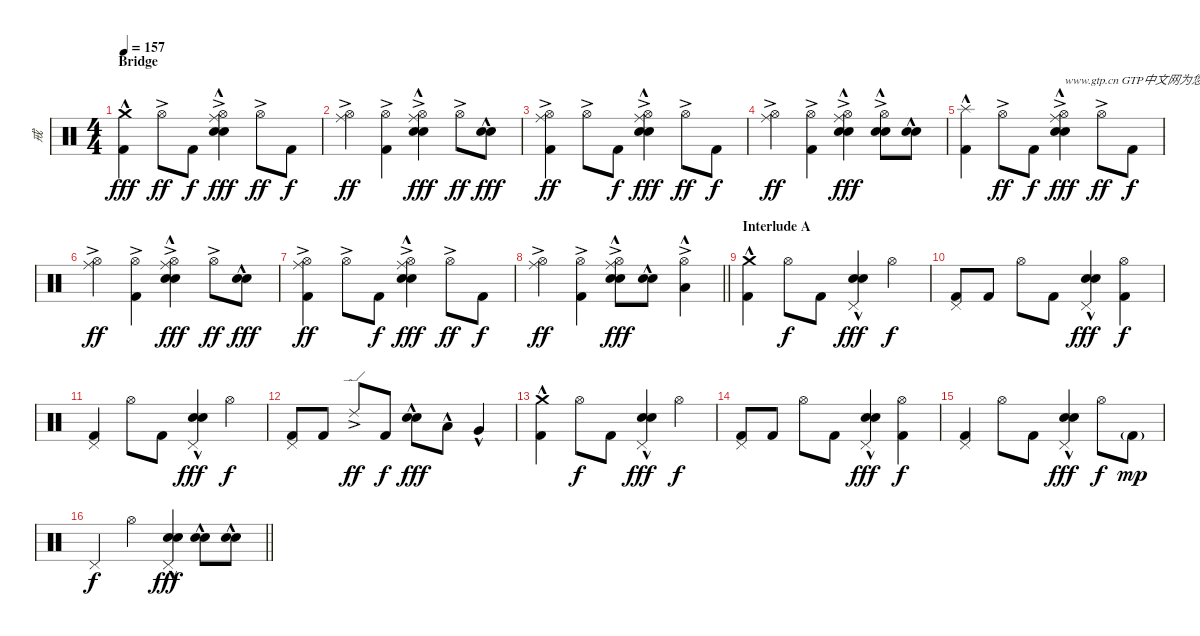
\track ("戒" "戒") {instrument percussion}
\staff {score}
\articulation defaults
\ts (4 4)
\section ("" "Bridge")
\tempo 157
\clef neutral
\ks c
("Crash medium (hit)"{hac} "Kick (hit) 2").4{dy fff} "Hi-Hat (open)"{ac}.8{dy ff} "Kick (hit) 2".8{dy f} ("Hi-Hat (open)"{ac} "Ride (middle)" "Electric Snare (hit)"{hac} "Snare (hit) 2"{hac}).4{dy fff} "Hi-Hat (open)"{ac}.8{dy ff} "Kick (hit) 2".8{dy f} |
("Hi-Hat (open)"{ac} "Ride (middle)").4{dy ff} ("Hi-Hat (open)"{ac} "Kick (hit) 2").4 ("Hi-Hat (open)"{ac} "Ride (middle)" "Electric Snare (hit)"{hac} "Snare (hit) 2"{hac}).4{dy fff} "Hi-Hat (open)"{ac}.8{dy ff} ("Electric Snare (hit)"{hac} "Snare (hit) 2"{hac}).8{dy fff} |
("Hi-Hat (open)"{ac} "Ride (middle)" "Kick (hit) 2").4{dy ff} "Hi-Hat (open)"{ac}.8 "Kick (hit) 2".8{dy f} ("Hi-Hat (open)"{ac} "Ride (middle)" "Electric Snare (hit)"{hac} "Snare (hit) 2"{hac}).4{dy fff} "Hi-Hat (open)"{ac}.8{dy ff} "Kick (hit) 2".8{dy f} |
("Hi-Hat (open)"{ac} "Ride (middle)").4{dy ff} ("Hi-Hat (open)"{ac} "Kick (hit) 2").4 ("Hi-Hat (open)"{ac} "Ride (middle)" "Electric Snare (hit)"{hac} "Snare (hit) 2"{hac}).4{dy fff} ("Hi-Hat (open)"{ac} "Electric Snare (hit)"{hac} "Snare (hit) 2"{hac}).8 ("Electric Snare (hit)"{hac} "Snare (hit) 2"{hac}).8 |
("Splash (hit)"{hac} "Kick (hit) 2").4 "Hi-Hat (open)"{ac}.8{dy ff} "Kick (hit) 2".8{dy f} ("Hi-Hat (open)"{ac} "Ride (middle)" "Electric Snare (hit)"{hac} "Snare (hit) 2"{hac}).4{txt "www.gtp.cn GTP中文网为您提供优秀的谱子" dy fff} "Hi-Hat (open)"{ac}.8{dy ff} "Kick (hit) 2".8{dy f} |
("Hi-Hat (open)"{ac} "Ride (middle)").4{dy ff} ("Hi-Hat (open)"{ac} "Kick (hit) 2").4 ("Hi-Hat (open)"{ac} "Ride (middle)" "Electric Snare (hit)"{hac} "Snare (hit) 2"{hac}).4{dy fff} "Hi-Hat (open)"{ac}.8{dy ff} ("Electric Snare (hit)"{hac} "Snare (hit) 2"{hac}).8{dy fff} |
("Hi-Hat (open)"{ac} "Ride (middle)" "Kick (hit) 2").4{dy ff} "Hi-Hat (open)"{ac}.8 "Kick (hit) 2".8{dy f} ("Hi-Hat (open)"{ac} "Ride (middle)" "Electric Snare (hit)"{hac} "Snare (hit) 2"{hac}).4{dy fff} "Hi-Hat (open)"{ac}.8{dy ff} "Kick (hit) 2".8{dy f} |
\barLineRight lightlight
("Hi-Hat (open)"{ac} "Ride (middle)").4{dy ff} ("Hi-Hat (open)"{ac} "Kick (hit) 2").4 ("Hi-Hat (open)"{ac} "Ride (middle)" "Electric Snare (hit)"{hac} "Snare (hit) 2"{hac}).8{dy fff} ("Electric Snare (hit)"{hac} "Snare (hit) 2"{hac}).8 ("Hi-Hat (open)"{ac} "Low Tom (hit)"{hac}).4 |
\section ("" "Interlude A")
("Crash medium (hit)"{hac} "Kick (hit) 2").4{volume 16} "Hi-Hat (open)".8{dy f} "Kick (hit) 2".8 ("Pedal Hi-Hat (hit)" "Electric Snare (hit)"{hac} "Snare (hit) 2"{hac}).4{dy fff} "Hi-Hat (open)".4{dy f} |
("Pedal Hi-Hat (hit)" "Kick (hit) 2").8 "Kick (hit) 2".8 "Hi-Hat (open)".8 "Kick (hit) 2".8 ("Pedal Hi-Hat (hit)" "Electric Snare (hit)"{hac} "Snare (hit) 2"{hac}).4{dy fff} ("Hi-Hat (open)" "Kick (hit) 2").4{dy f} |
("Pedal Hi-Hat (hit)" "Kick (hit) 2").4 "Hi-Hat (open)".8 "Kick (hit) 2".8 ("Pedal Hi-Hat (hit)" "Electric Snare (hit)"{hac} "Snare (hit) 2"{hac}).4{dy fff} "Hi-Hat (open)".4{dy f} |
("Pedal Hi-Hat (hit)" "Kick (hit) 2").8 "Kick (hit) 2".8 "Ride (edge) 2"{ac}.8{dy ff} "Kick (hit) 2".8{dy f} ("Electric Snare (hit)"{hac} "Snare (hit) 2"{hac}).8{dy fff} "Low Tom (hit)"{hac}.8 "Very Low Tom (hit)"{hac}.4 |
("Crash medium (hit)"{hac} "Kick (hit) 2").4 "Hi-Hat (open)".8{dy f} "Kick (hit) 2".8 ("Pedal Hi-Hat (hit)" "Electric Snare (hit)"{hac} "Snare (hit) 2"{hac}).4{dy fff} "Hi-Hat (open)".4{dy f} |
("Pedal Hi-Hat (hit)" "Kick (hit) 2").8 "Kick (hit) 2".8 "Hi-Hat (open)".8 "Kick (hit) 2".8 ("Pedal Hi-Hat (hit)" "Electric Snare (hit)"{hac} "Snare (hit) 2"{hac}).4{dy fff} ("Hi-Hat (open)" "Kick (hit) 2").4{dy f} |
("Pedal Hi-Hat (hit)" "Kick (hit) 2").4 "Hi-Hat (open)".8 "Kick (hit) 2".8 ("Pedal Hi-Hat (hit)" "Electric Snare (hit)"{hac} "Snare (hit) 2"{hac}).4{dy fff} "Hi-Hat (open)".8{dy f} "Kick (hit) 2"{g}.8{dy mp} |
\barLineRight lightlight "Pedal Hi-Hat (hit)".4{dy f} "Hi-Hat (open)".4
("Pedal Hi-Hat (hit)" "Electric Snare (hit)"{hac} "Snare (hit) 2"{hac}).4{dy fff} ("Electric Snare (hit)"{hac} "Snare (hit) 2"{hac}).8 ("Electric Snare (hit)"{hac} "Snare (hit) 2"{hac}).8
